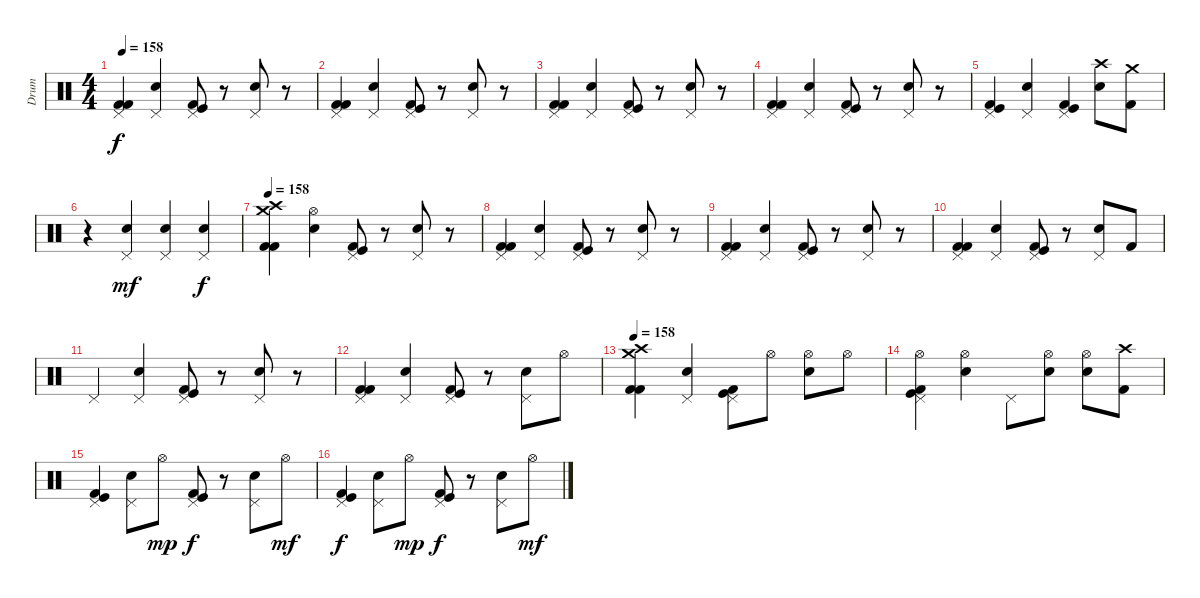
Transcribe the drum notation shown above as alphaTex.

\track ("Drum" "Drum") {instrument percussion}
\staff {score}
\articulation defaults
\ts (4 4)
\tempo 158
\clef neutral
\ks c
("Pedal Hi-Hat (hit)" "Kick (hit) 2" "Kick (hit) 2").4{dy f} ("Pedal Hi-Hat (hit)" "Electric Snare (hit)").4 ("Pedal Hi-Hat (hit)" "Kick (hit) 2" "Kick (hit)").8 r.8 ("Pedal Hi-Hat (hit)" "Electric Snare (hit)").8 r.8 |
("Pedal Hi-Hat (hit)" "Kick (hit) 2" "Kick (hit) 2").4 ("Pedal Hi-Hat (hit)" "Electric Snare (hit)").4 ("Pedal Hi-Hat (hit)" "Kick (hit) 2" "Kick (hit)").8 r.8 ("Pedal Hi-Hat (hit)" "Electric Snare (hit)").8 r.8 |
("Pedal Hi-Hat (hit)" "Kick (hit) 2" "Kick (hit) 2").4 ("Pedal Hi-Hat (hit)" "Electric Snare (hit)").4 ("Pedal Hi-Hat (hit)" "Kick (hit) 2" "Kick (hit)").8 r.8 ("Pedal Hi-Hat (hit)" "Electric Snare (hit)").8 r.8 |
("Pedal Hi-Hat (hit)" "Kick (hit) 2" "Kick (hit) 2").4 ("Pedal Hi-Hat (hit)" "Electric Snare (hit)").4 ("Pedal Hi-Hat (hit)" "Kick (hit) 2" "Kick (hit)").8 r.8 ("Pedal Hi-Hat (hit)" "Electric Snare (hit)").8 r.8 |
("Pedal Hi-Hat (hit)" "Kick (hit) 2" "Kick (hit)").4 ("Electric Snare (hit)" "Pedal Hi-Hat (hit)").4 ("Kick (hit) 2" "Kick (hit)" "Pedal Hi-Hat (hit)").4 ("Crash high (hit)" "Electric Snare (hit)").8 ("Crash medium (hit)" "Kick (hit) 2").8 |
r.4 ("Pedal Hi-Hat (hit)" "Electric Snare (hit)").4{dy mf} ("Pedal Hi-Hat (hit)" "Electric Snare (hit)").4 ("Pedal Hi-Hat (hit)" "Electric Snare (hit)").4{dy f} |
\tempo 158
("Crash high (hit)" "Kick (hit) 2" "Kick (hit) 2" "Crash medium (hit)").4 ("Hi-Hat (open)" "Electric Snare (hit)").4 ("Pedal Hi-Hat (hit)" "Kick (hit) 2" "Kick (hit)").8 r.8 ("Pedal Hi-Hat (hit)" "Electric Snare (hit)").8 r.8 |
("Pedal Hi-Hat (hit)" "Kick (hit) 2" "Kick (hit) 2").4 ("Pedal Hi-Hat (hit)" "Electric Snare (hit)").4 ("Pedal Hi-Hat (hit)" "Kick (hit) 2" "Kick (hit)").8 r.8 ("Pedal Hi-Hat (hit)" "Electric Snare (hit)").8 r.8 |
("Pedal Hi-Hat (hit)" "Kick (hit) 2" "Kick (hit) 2").4 ("Pedal Hi-Hat (hit)" "Electric Snare (hit)").4 ("Pedal Hi-Hat (hit)" "Kick (hit) 2" "Kick (hit)").8 r.8 ("Pedal Hi-Hat (hit)" "Electric Snare (hit)").8 r.8 |
("Pedal Hi-Hat (hit)" "Kick (hit) 2" "Kick (hit) 2").4 ("Pedal Hi-Hat (hit)" "Electric Snare (hit)").4 ("Pedal Hi-Hat (hit)" "Kick (hit) 2" "Kick (hit)").8 r.8 ("Pedal Hi-Hat (hit)" "Electric Snare (hit)").8 "Kick (hit) 2".8 |
"Pedal Hi-Hat (hit)".4 ("Pedal Hi-Hat (hit)" "Electric Snare (hit)").4 ("Pedal Hi-Hat (hit)" "Kick (hit) 2" "Kick (hit)").8 r.8 ("Pedal Hi-Hat (hit)" "Electric Snare (hit)").8 r.8 |
("Pedal Hi-Hat (hit)" "Kick (hit) 2" "Kick (hit) 2").4 ("Pedal Hi-Hat (hit)" "Electric Snare (hit)").4 ("Pedal Hi-Hat (hit)" "Kick (hit) 2" "Kick (hit)").8 r.8 ("Pedal Hi-Hat (hit)" "Electric Snare (hit)").8 "Hi-Hat (open)".8 |
\tempo 158
("Crash high (hit)" "Kick (hit) 2" "Kick (hit) 2" "Crash medium (hit)").4 ("Pedal Hi-Hat (hit)" "Electric Snare (hit)").4 ("Pedal Hi-Hat (hit)" "Kick (hit) 2" "Kick (hit)").8 "Hi-Hat (open)".8 ("Hi-Hat (open)" "Electric Snare (hit)").8 "Hi-Hat (open)".8 |
("Hi-Hat (open)" "Pedal Hi-Hat (hit)" "Kick (hit) 2" "Kick (hit)").4 ("Hi-Hat (open)" "Electric Snare (hit)").4 "Pedal Hi-Hat (hit)".8 ("Hi-Hat (open)" "Electric Snare (hit)").8 ("Hi-Hat (open)" "Electric Snare (hit)").8 ("Crash high (hit)" "Kick (hit) 2").8 |
("Pedal Hi-Hat (hit)" "Kick (hit)" "Kick (hit) 2").4 ("Electric Snare (hit)" "Pedal Hi-Hat (hit)").8 "Hi-Hat (open)".8{dy mp} ("Kick (hit) 2" "Kick (hit)" "Pedal Hi-Hat (hit)").8{dy f} r.8 ("Pedal Hi-Hat (hit)" "Electric Snare (hit)").8 "Hi-Hat (open)".8{dy mf} |
("Pedal Hi-Hat (hit)" "Kick (hit)" "Kick (hit) 2").4{dy f} ("Electric Snare (hit)" "Pedal Hi-Hat (hit)").8 "Hi-Hat (open)".8{dy mp} ("Kick (hit) 2" "Kick (hit)" "Pedal Hi-Hat (hit)").8{dy f} r.8 ("Pedal Hi-Hat (hit)" "Electric Snare (hit)").8 "Hi-Hat (open)".8{dy mf}
